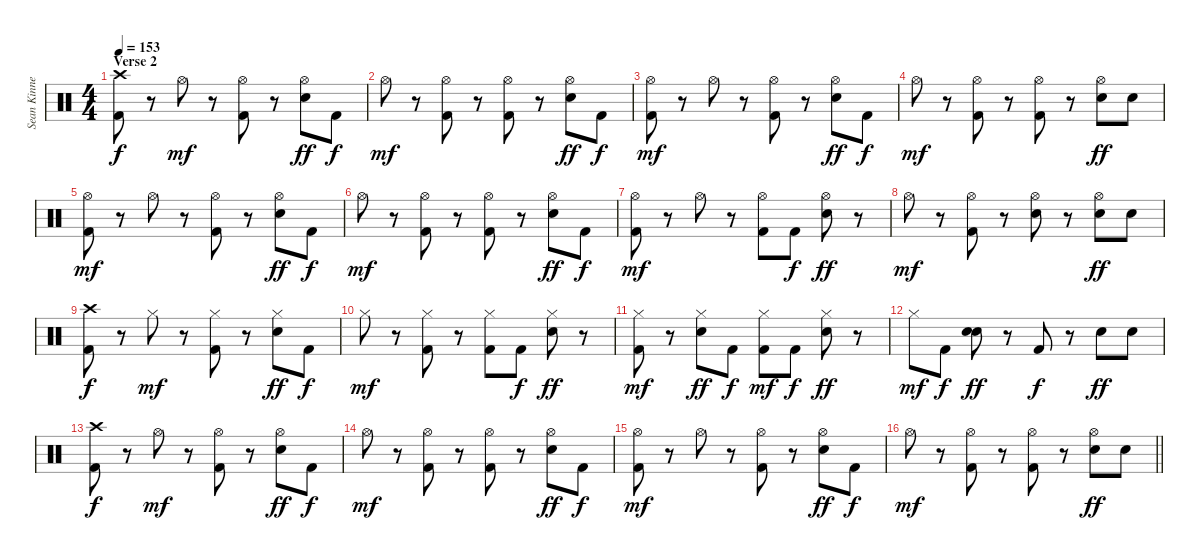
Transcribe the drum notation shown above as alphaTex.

\track ("Sean Kinney - Drums" "Sean Kinne") {instrument percussion}
\staff {score}
\articulation defaults
\ts (4 4)
\section ("" "Verse 2")
\tempo 153
\clef neutral
\ks c
("Crash high (hit)" "Kick (hit) 2").8{dy f} r.8 "Hi-Hat (open)".8{dy mf} r.8 ("Hi-Hat (open)" "Kick (hit) 2").8 r.8 ("Hi-Hat (open)" "Snare (hit) 2").8{dy ff} "Kick (hit) 2".8{dy f} |
"Hi-Hat (open)".8{dy mf} r.8 ("Hi-Hat (open)" "Kick (hit) 2").8 r.8 ("Hi-Hat (open)" "Kick (hit) 2").8 r.8 ("Hi-Hat (open)" "Snare (hit) 2").8{dy ff} "Kick (hit) 2".8{dy f} |
("Hi-Hat (open)" "Kick (hit) 2").8{dy mf} r.8 "Hi-Hat (open)".8 r.8 ("Hi-Hat (open)" "Kick (hit) 2").8 r.8 ("Hi-Hat (open)" "Snare (hit) 2").8{dy ff} "Kick (hit) 2".8{dy f} |
"Hi-Hat (open)".8{dy mf} r.8 ("Hi-Hat (open)" "Kick (hit) 2").8 r.8 ("Hi-Hat (open)" "Kick (hit) 2").8 r.8 ("Hi-Hat (open)" "Snare (hit) 2").8{dy ff} "Snare (hit) 2".8 |
("Hi-Hat (open)" "Kick (hit) 2").8{dy mf} r.8 "Hi-Hat (open)".8 r.8 ("Hi-Hat (open)" "Kick (hit) 2").8 r.8 ("Hi-Hat (open)" "Snare (hit) 2").8{dy ff} "Kick (hit) 2".8{dy f} |
"Hi-Hat (open)".8{dy mf} r.8 ("Hi-Hat (open)" "Kick (hit) 2").8 r.8 ("Hi-Hat (open)" "Kick (hit) 2").8 r.8 ("Hi-Hat (open)" "Snare (hit) 2").8{dy ff} "Kick (hit) 2".8{dy f} |
("Hi-Hat (open)" "Kick (hit) 2").8{dy mf} r.8 "Hi-Hat (open)".8 r.8 ("Hi-Hat (open)" "Kick (hit) 2").8 "Kick (hit) 2".8{dy f} ("Hi-Hat (open)" "Snare (hit) 2").8{dy ff} r.8 |
"Hi-Hat (open)".8{dy mf} r.8 ("Hi-Hat (open)" "Kick (hit) 2").8 r.8 ("Hi-Hat (open)" "Snare (hit) 2").8 r.8 ("Hi-Hat (open)" "Snare (hit) 2").8{dy ff} "Snare (hit) 2".8 |
("Crash high (hit)" "Kick (hit) 2").8{dy f} r.8 "Hi-Hat (closed)".8{dy mf} r.8 ("Hi-Hat (closed)" "Kick (hit) 2").8 r.8 ("Hi-Hat (closed)" "Snare (hit) 2").8{dy ff} "Kick (hit) 2".8{dy f} |
"Hi-Hat (closed)".8{dy mf} r.8 ("Hi-Hat (closed)" "Kick (hit) 2").8 r.8 ("Hi-Hat (closed)" "Kick (hit) 2").8 "Kick (hit) 2".8{dy f} ("Hi-Hat (closed)" "Snare (hit) 2").8{dy ff} r.8 |
("Hi-Hat (closed)" "Kick (hit) 2").8{dy mf} r.8 ("Hi-Hat (closed)" "Snare (hit) 2").8{dy ff} "Kick (hit) 2".8{dy f} ("Hi-Hat (closed)" "Kick (hit) 2").8{dy mf} "Kick (hit) 2".8{dy f} ("Hi-Hat (closed)" "Snare (hit) 2").8{dy ff} r.8 |
"Hi-Hat (closed)".8{dy mf} "Kick (hit) 2".8{dy f} ("Snare (hit) 2" "Snare (hit) 2").8{dy ff} r.8 "Kick (hit) 2".8{dy f} r.8 "Snare (hit) 2".8{dy ff} "Snare (hit) 2".8 |
("Crash high (hit)" "Kick (hit) 2").8{dy f} r.8 "Hi-Hat (open)".8{dy mf} r.8 ("Hi-Hat (open)" "Kick (hit) 2").8 r.8 ("Hi-Hat (open)" "Snare (hit) 2").8{dy ff} "Kick (hit) 2".8{dy f} |
"Hi-Hat (open)".8{dy mf} r.8 ("Hi-Hat (open)" "Kick (hit) 2").8 r.8 ("Hi-Hat (open)" "Kick (hit) 2").8 r.8 ("Hi-Hat (open)" "Snare (hit) 2").8{dy ff} "Kick (hit) 2".8{dy f} |
("Hi-Hat (open)" "Kick (hit) 2").8{dy mf} r.8 "Hi-Hat (open)".8 r.8 ("Hi-Hat (open)" "Kick (hit) 2").8 r.8 ("Hi-Hat (open)" "Snare (hit) 2").8{dy ff} "Kick (hit) 2".8{dy f} |
\barLineRight lightlight "Hi-Hat (open)".8{dy mf}
r.8 ("Hi-Hat (open)" "Kick (hit) 2").8 r.8 ("Hi-Hat (open)" "Kick (hit) 2").8 r.8 ("Hi-Hat (open)" "Snare (hit) 2").8{dy ff} "Snare (hit) 2".8
